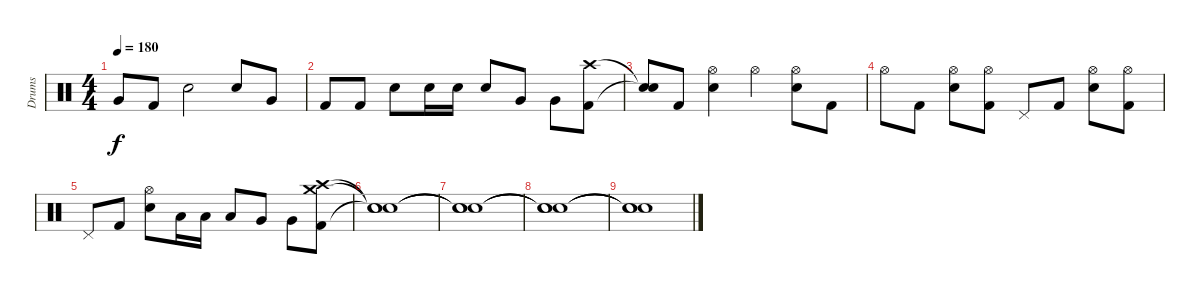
\track ("Drums" "Drums") {instrument percussion}
\staff {score}
\articulation defaults
\ts (4 4)
\tempo 180
\clef neutral
\ks c "Very Low Tom (hit)".8{dy f} "Kick (hit) 2".8 "Electric Snare (hit)".2 "Electric Snare (hit)".8 "Very Low Tom (hit)".8
|
"Kick (hit) 2".8 "Kick (hit) 2".8 "Electric Snare (hit)".8 "Electric Snare (hit)".16 "Electric Snare (hit)".16 "Electric Snare (hit)".8 "Very Low Tom (hit)".8 "Very Low Tom (hit)".8 ("Crash high (hit)" "Kick (hit) 2").8 |
("Snare (hit)"{t} "Snare (hit)"{t}).8 "Kick (hit) 2".8 ("Hi-Hat (open)" "Electric Snare (hit)").4 "Hi-Hat (open)".4 ("Hi-Hat (open)" "Electric Snare (hit)").8 "Kick (hit) 2".8 |
"Hi-Hat (open)".8 "Kick (hit) 2".8 ("Hi-Hat (open)" "Electric Snare (hit)").8 ("Hi-Hat (open)" "Kick (hit) 2").8 "Pedal Hi-Hat (hit)".8 "Kick (hit) 2".8 ("Hi-Hat (open)" "Electric Snare (hit)").8 ("Hi-Hat (open)" "Kick (hit) 2").8 |
"Pedal Hi-Hat (hit)".8 "Kick (hit) 2".8 ("Hi-Hat (open)" "Electric Snare (hit)").8 "Low Tom (hit)".16 "Low Tom (hit)".16 "Low Tom (hit)".8 "Very Low Tom (hit)".8 "Very Low Tom (hit)".8 ("Crash high (hit)" "Crash medium (hit)" "Kick (hit) 2").8 |
("Snare (hit)"{t} "Snare (hit)"{t} "Snare (hit)"{t}).1 |
("Snare (hit)"{t} "Snare (hit)"{t} "Snare (hit)"{t}).1 |
("Snare (hit)"{t} "Snare (hit)"{t} "Snare (hit)"{t}).1 |
("Snare (hit)"{t} "Snare (hit)"{t} "Snare (hit)"{t}).1
